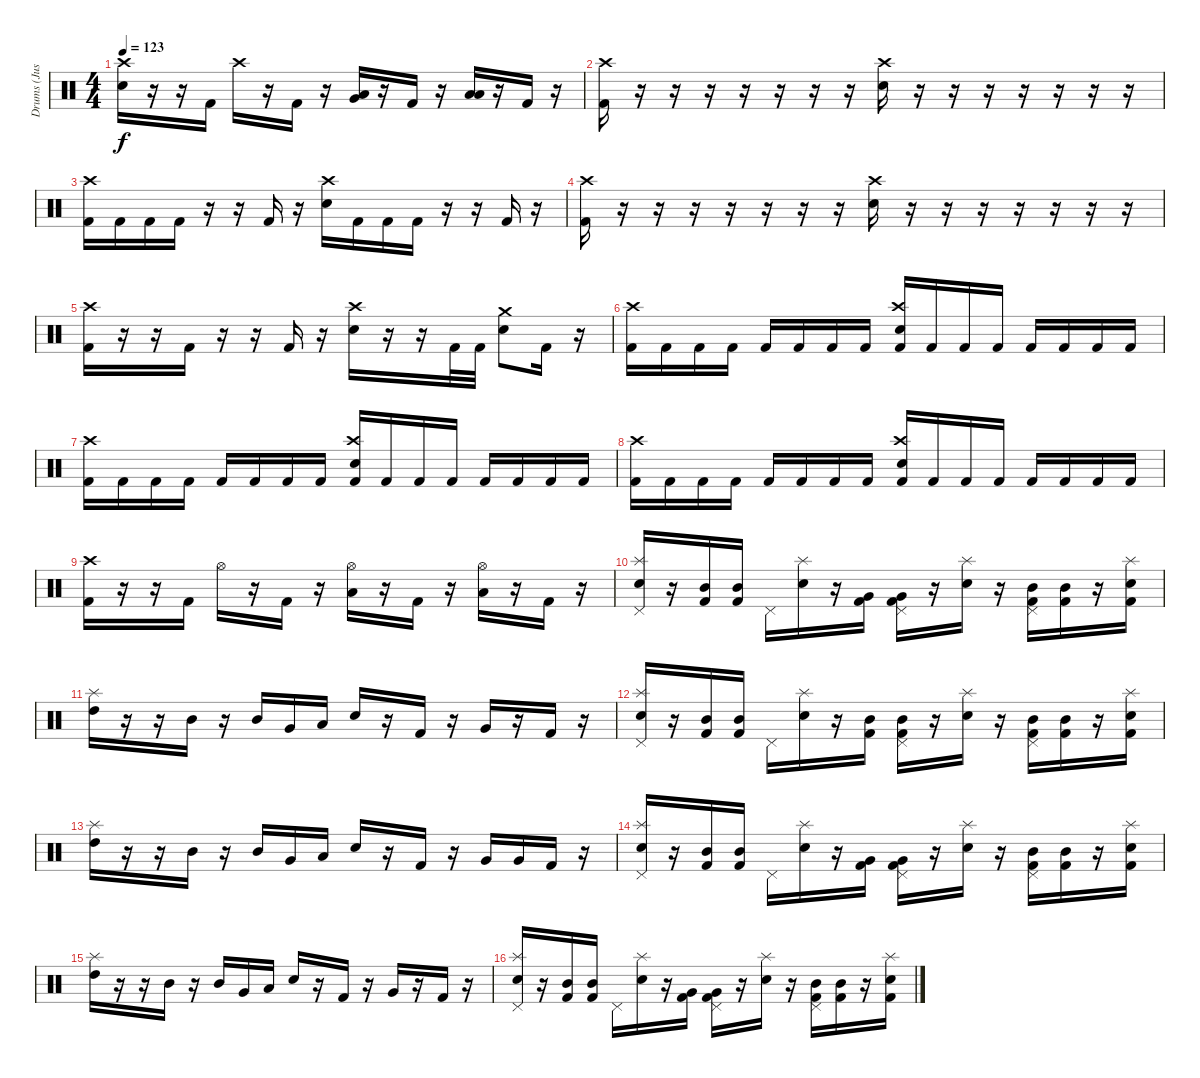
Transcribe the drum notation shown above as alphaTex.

\track ("Drums (Justin)" "Drums (Jus") {instrument percussion}
\staff {score}
\articulation defaults
\ts (4 4)
\tempo 123
\clef neutral
\ks c
("Electric Snare (hit)" "Crash high (hit)").16{dy f} r.16 r.16 "Kick (hit) 2".16 "Crash high (hit)".16 r.16 "Kick (hit) 2".16 r.16 ("Very Low Tom (hit)" "Low Tom (hit)").16 r.16 "Kick (hit) 2".16 r.16 ("Low Tom (hit)" "Low Floor Tom (hit)").16 r.16 "Kick (hit) 2".16 r.16 |
("Crash high (hit)" "Kick (hit) 2").16 r.16 r.16 r.16 r.16 r.16 r.16 r.16 ("Electric Snare (hit)" "Crash high (hit)").16 r.16 r.16 r.16 r.16 r.16 r.16 r.16 |
("Crash high (hit)" "Kick (hit) 2").16 "Kick (hit) 2".16 "Kick (hit) 2".16 "Kick (hit) 2".16 r.16 r.16 "Kick (hit) 2".16 r.16 ("Electric Snare (hit)" "Crash high (hit)").16 "Kick (hit) 2".16 "Kick (hit) 2".16 "Kick (hit) 2".16 r.16 r.16 "Kick (hit) 2".16 r.16 |
("Crash high (hit)" "Kick (hit) 2").16 r.16 r.16 r.16 r.16 r.16 r.16 r.16 ("Electric Snare (hit)" "Crash high (hit)").16 r.16 r.16 r.16 r.16 r.16 r.16 r.16 |
("Crash high (hit)" "Kick (hit) 2").16 r.16 r.16 "Kick (hit) 2".16 r.16 r.16 "Kick (hit) 2".16 r.16 ("Electric Snare (hit)" "Crash high (hit)").16 r.16 r.16 "Kick (hit) 2".32 "Kick (hit) 2".32 ("Electric Snare (hit)" "Crash medium (hit)").8 "Kick (hit) 2".16 r.16 |
("Crash high (hit)" "Kick (hit) 2").16 "Kick (hit) 2".16 "Kick (hit) 2".16 "Kick (hit) 2".16 "Kick (hit) 2".16 "Kick (hit) 2".16 "Kick (hit) 2".16 "Kick (hit) 2".16 ("Electric Snare (hit)" "Crash high (hit)" "Kick (hit) 2").16 "Kick (hit) 2".16 "Kick (hit) 2".16 "Kick (hit) 2".16 "Kick (hit) 2".16 "Kick (hit) 2".16 "Kick (hit) 2".16 "Kick (hit) 2".16 |
("Crash high (hit)" "Kick (hit) 2").16 "Kick (hit) 2".16 "Kick (hit) 2".16 "Kick (hit) 2".16 "Kick (hit) 2".16 "Kick (hit) 2".16 "Kick (hit) 2".16 "Kick (hit) 2".16 ("Electric Snare (hit)" "Crash high (hit)" "Kick (hit) 2").16 "Kick (hit) 2".16 "Kick (hit) 2".16 "Kick (hit) 2".16 "Kick (hit) 2".16 "Kick (hit) 2".16 "Kick (hit) 2".16 "Kick (hit) 2".16 |
("Crash high (hit)" "Kick (hit) 2").16 "Kick (hit) 2".16 "Kick (hit) 2".16 "Kick (hit) 2".16 "Kick (hit) 2".16 "Kick (hit) 2".16 "Kick (hit) 2".16 "Kick (hit) 2".16 ("Electric Snare (hit)" "Crash high (hit)" "Kick (hit) 2").16 "Kick (hit) 2".16 "Kick (hit) 2".16 "Kick (hit) 2".16 "Kick (hit) 2".16 "Kick (hit) 2".16 "Kick (hit) 2".16 "Kick (hit) 2".16 |
("Crash high (hit)" "Kick (hit) 2").16 r.16 r.16 "Kick (hit) 2".16 "Hi-Hat (open)".16 r.16 "Kick (hit) 2".16 r.16 ("Hi-Hat (open)" "Low Tom (hit)").16 r.16 "Kick (hit) 2".16 r.16 ("Hi-Hat (open)" "Low Floor Tom (hit)").16 r.16 "Kick (hit) 2".16 r.16 |
("Electric Snare (hit)" "Splash (hit)" "Pedal Hi-Hat (hit)").16 r.16 ("Mid Tom (hit)" "Kick (hit) 2").16 ("Mid Tom (hit)" "Kick (hit) 2").16 "Pedal Hi-Hat (hit)".16 ("Electric Snare (hit)" "Splash (hit)").16 r.16 ("Very Low Tom (hit)" "Kick (hit) 2").16 ("Very Low Tom (hit)" "Pedal Hi-Hat (hit)" "Kick (hit) 2").16 r.16 ("Electric Snare (hit)" "Splash (hit)").16 r.16 ("Mid Tom (hit)" "Pedal Hi-Hat (hit)" "Kick (hit) 2").16 ("Mid Tom (hit)" "Kick (hit) 2").16 r.16 ("Splash (hit)" "Electric Snare (hit)" "Kick (hit) 2").16 |
("High Tom (hit)" "Splash (hit)").16 r.16 r.16 "Mid Tom (hit)".16 r.16 "Mid Tom (hit)".16 "Very Low Tom (hit)".16 "Low Tom (hit)".16 "Electric Snare (hit)".16 r.16 "Kick (hit) 2".16 r.16 "Very Low Tom (hit)".16 r.16 "Kick (hit) 2".16 r.16 |
("Electric Snare (hit)" "Splash (hit)" "Pedal Hi-Hat (hit)").16 r.16 ("Mid Tom (hit)" "Kick (hit) 2").16 ("Mid Tom (hit)" "Kick (hit) 2").16 "Pedal Hi-Hat (hit)".16 ("Electric Snare (hit)" "Splash (hit)").16 r.16 ("Mid Tom (hit)" "Kick (hit) 2").16 ("Mid Tom (hit)" "Pedal Hi-Hat (hit)" "Kick (hit) 2").16 r.16 ("Electric Snare (hit)" "Splash (hit)").16 r.16 ("Mid Tom (hit)" "Pedal Hi-Hat (hit)" "Kick (hit) 2").16 ("Mid Tom (hit)" "Kick (hit) 2").16 r.16 ("Splash (hit)" "Electric Snare (hit)" "Kick (hit) 2").16 |
("High Tom (hit)" "Splash (hit)").16 r.16 r.16 "Mid Tom (hit)".16 r.16 "Mid Tom (hit)".16 "Very Low Tom (hit)".16 "Low Tom (hit)".16 "Electric Snare (hit)".16 r.16 "Kick (hit) 2".16 r.16 "Very Low Tom (hit)".16 "Very Low Tom (hit)".16 "Kick (hit) 2".16 r.16 |
("Electric Snare (hit)" "Splash (hit)" "Pedal Hi-Hat (hit)").16 r.16 ("Mid Tom (hit)" "Kick (hit) 2").16 ("Mid Tom (hit)" "Kick (hit) 2").16 "Pedal Hi-Hat (hit)".16 ("Electric Snare (hit)" "Splash (hit)").16 r.16 ("Very Low Tom (hit)" "Kick (hit) 2").16 ("Very Low Tom (hit)" "Pedal Hi-Hat (hit)" "Kick (hit) 2").16 r.16 ("Electric Snare (hit)" "Splash (hit)").16 r.16 ("Mid Tom (hit)" "Pedal Hi-Hat (hit)" "Kick (hit) 2").16 ("Mid Tom (hit)" "Kick (hit) 2").16 r.16 ("Splash (hit)" "Electric Snare (hit)" "Kick (hit) 2").16 |
("High Tom (hit)" "Splash (hit)").16 r.16 r.16 "Mid Tom (hit)".16 r.16 "Mid Tom (hit)".16 "Very Low Tom (hit)".16 "Low Tom (hit)".16 "Electric Snare (hit)".16 r.16 "Kick (hit) 2".16 r.16 "Very Low Tom (hit)".16 r.16 "Kick (hit) 2".16 r.16 |
("Electric Snare (hit)" "Splash (hit)" "Pedal Hi-Hat (hit)").16 r.16 ("Mid Tom (hit)" "Kick (hit) 2").16 ("Mid Tom (hit)" "Kick (hit) 2").16 "Pedal Hi-Hat (hit)".16 ("Electric Snare (hit)" "Splash (hit)").16 r.16 ("Very Low Tom (hit)" "Kick (hit) 2").16 ("Very Low Tom (hit)" "Pedal Hi-Hat (hit)" "Kick (hit) 2").16 r.16 ("Electric Snare (hit)" "Splash (hit)").16 r.16 ("Mid Tom (hit)" "Pedal Hi-Hat (hit)" "Kick (hit) 2").16 ("Mid Tom (hit)" "Kick (hit) 2").16 r.16 ("Splash (hit)" "Electric Snare (hit)" "Kick (hit) 2").16
